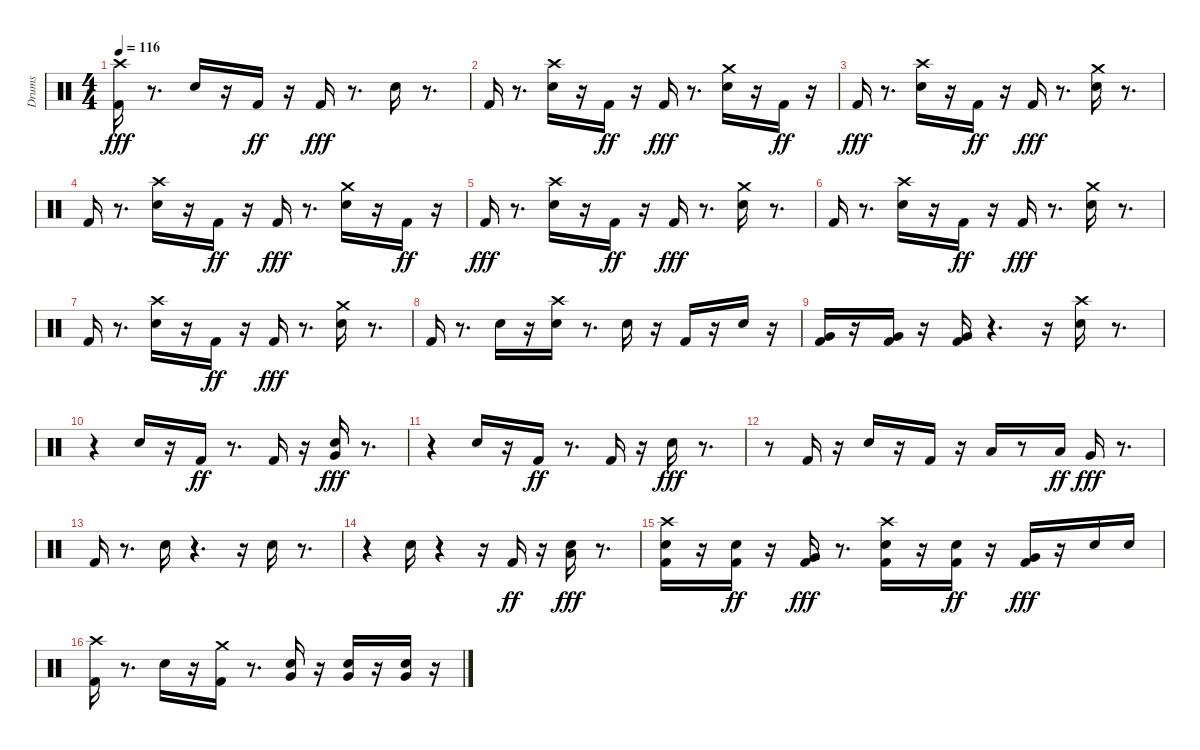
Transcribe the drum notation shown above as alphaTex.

\track ("Drums" "Drums") {instrument percussion}
\staff {score}
\articulation defaults
\ts (4 4)
\tempo 116
\clef neutral
\ks c
("Crash high (hit)" "Kick (hit) 2").16{dy fff} r.8{d} "Snare (hit) 2".16 r.16 "Kick (hit) 2".16{dy ff} r.16 "Kick (hit) 2".16{dy fff} r.8{d} "Snare (hit) 2".16 r.8{d} |
"Kick (hit) 2".16 r.8{d} ("Crash high (hit)" "Snare (hit) 2").16 r.16 "Kick (hit) 2".16{dy ff} r.16 "Kick (hit) 2".16{dy fff} r.8{d} ("Crash medium (hit)" "Snare (hit) 2").16 r.16 "Kick (hit) 2".16{dy ff} r.16 |
"Kick (hit) 2".16{dy fff} r.8{d} ("Crash high (hit)" "Snare (hit) 2").16 r.16 "Kick (hit) 2".16{dy ff} r.16 "Kick (hit) 2".16{dy fff} r.8{d} ("Crash medium (hit)" "Snare (hit) 2").16 r.8{d} |
"Kick (hit) 2".16 r.8{d} ("Crash high (hit)" "Snare (hit) 2").16 r.16 "Kick (hit) 2".16{dy ff} r.16 "Kick (hit) 2".16{dy fff} r.8{d} ("Crash medium (hit)" "Snare (hit) 2").16 r.16 "Kick (hit) 2".16{dy ff} r.16 |
"Kick (hit) 2".16{dy fff} r.8{d} ("Crash high (hit)" "Snare (hit) 2").16 r.16 "Kick (hit) 2".16{dy ff} r.16 "Kick (hit) 2".16{dy fff} r.8{d} ("Crash medium (hit)" "Snare (hit) 2").16 r.8{d} |
"Kick (hit) 2".16 r.8{d} ("Crash high (hit)" "Snare (hit) 2").16 r.16 "Kick (hit) 2".16{dy ff} r.16 "Kick (hit) 2".16{dy fff} r.8{d} ("Crash medium (hit)" "Snare (hit) 2").16 r.8{d} |
"Kick (hit) 2".16 r.8{d} ("Crash high (hit)" "Snare (hit) 2").16 r.16 "Kick (hit) 2".16{dy ff} r.16 "Kick (hit) 2".16{dy fff} r.8{d} ("Crash medium (hit)" "Snare (hit) 2").16 r.8{d} |
"Kick (hit) 2".16 r.8{d} "Snare (hit) 2".16 r.16 ("Crash high (hit)" "Snare (hit) 2").16 r.8{d} "Snare (hit) 2".16 r.16 "Kick (hit) 2".16 r.16 "Snare (hit) 2".16 r.16 |
("Very Low Tom (hit)" "Kick (hit) 2").16 r.16 ("Very Low Tom (hit)" "Kick (hit) 2").16 r.16 ("Very Low Tom (hit)" "Kick (hit) 2").16 r.4{d} r.16 ("Snare (hit) 2" "Crash high (hit)").16 r.8{d} |
r.4 "Snare (hit) 2".16 r.16 "Kick (hit) 2".16{dy ff} r.8{d} "Kick (hit) 2".16 r.16 ("Very Low Tom (hit)" "Snare (hit) 2").16{dy fff} r.8{d} |
r.4 "Snare (hit) 2".16 r.16 "Kick (hit) 2".16{dy ff} r.8{d} "Kick (hit) 2".16 r.16 "Snare (hit) 2".16{dy fff} r.8{d} |
r.8 "Kick (hit) 2".16 r.16 "Snare (hit) 2".16 r.16 "Kick (hit) 2".16 r.16 "Low Tom (hit)".16 r.8 "Low Tom (hit)".16{dy ff} "Very Low Tom (hit)".16{dy fff} r.8{d} |
"Kick (hit) 2".16 r.8{d} "Snare (hit) 2".16 r.4{d} r.16 "Snare (hit) 2".16 r.8{d} |
r.4 "Snare (hit) 2".16 r.4 r.16 "Kick (hit) 2".16{dy ff} r.16 ("Low Tom (hit)" "Snare (hit) 2").16{dy fff} r.8{d} |
("Crash high (hit)" "Snare (hit) 2" "Kick (hit) 2").16 r.16 ("Kick (hit) 2" "Snare (hit) 2").16{dy ff} r.16 ("Kick (hit) 2" "Very Low Tom (hit)").16{dy fff} r.8{d} ("Crash high (hit)" "Snare (hit) 2" "Kick (hit) 2").16 r.16 ("Snare (hit) 2" "Kick (hit) 2").16{dy ff} r.16 ("Kick (hit) 2" "Very Low Tom (hit)").16{dy fff} r.16 "Snare (hit) 2".16 "Snare (hit) 2".16 |
("Crash high (hit)" "Kick (hit) 2").16 r.8{d} "Snare (hit) 2".16 r.16 ("Crash medium (hit)" "Kick (hit) 2").16 r.8{d} ("Very Low Tom (hit)" "Snare (hit) 2").16 r.16 ("Very Low Tom (hit)" "Snare (hit) 2").16 r.16 ("Snare (hit) 2" "Very Low Tom (hit)").16 r.16
